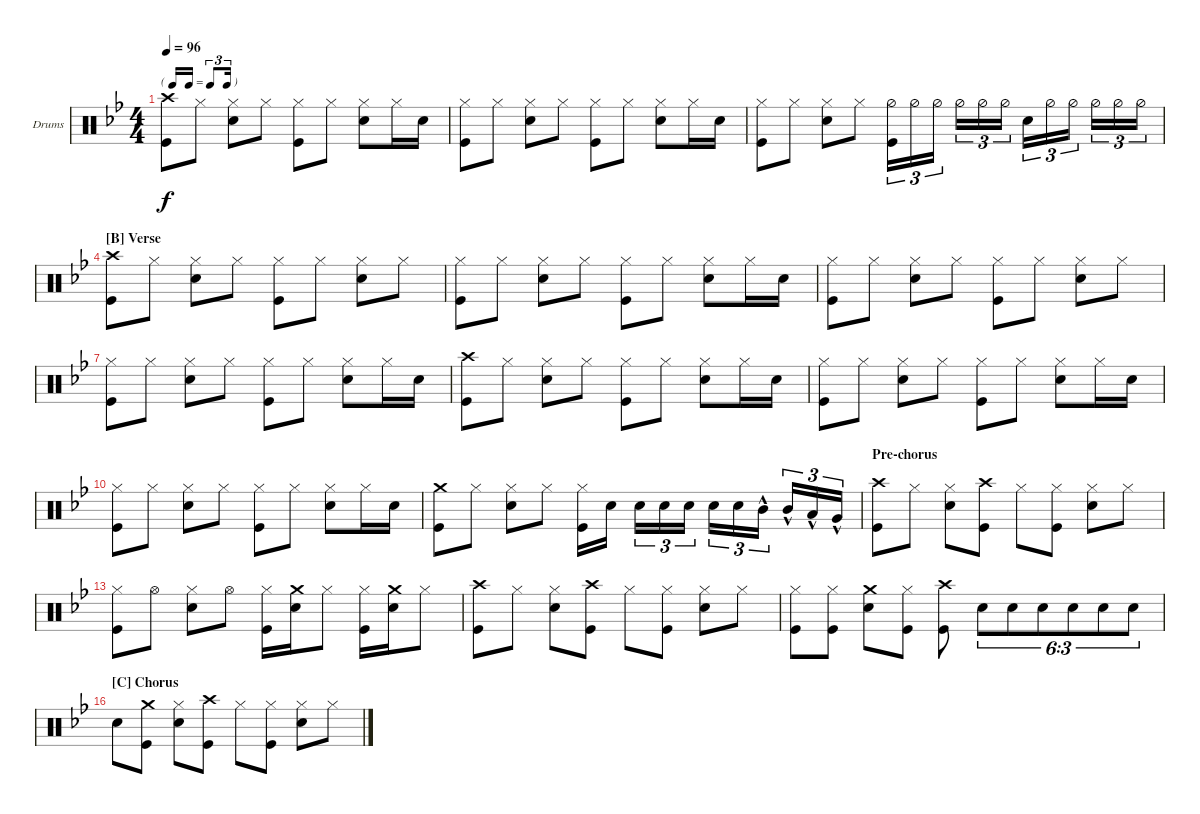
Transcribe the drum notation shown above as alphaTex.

\bracketExtendMode nobrackets
\firstSystemTrackNameOrientation horizontal
\otherSystemsTrackNameOrientation horizontal
\defaultBarNumberDisplay FirstOfSystem
\track ("Randy Castillo" "Drums") {instrument percussion}
\staff {score}
\articulation defaults
\ts (4 4)
\tf triplet16th
\tempo 96
\clef neutral
\scale
0.531165
\ks bb
("Kick (hit)" "Crash high (hit)").8{dy f} "Hi-Hat (closed)".8 ("Hi-Hat (closed)" "Snare (hit) 2").8 "Hi-Hat (closed)".8 ("Hi-Hat (closed)" "Kick (hit)").8 "Hi-Hat (closed)".8 ("Hi-Hat (closed)" "Snare (hit) 2").8 "Hi-Hat (closed)".16 "Snare (hit) 2".16 |
\scale
0.497634 ("Kick (hit)" "Hi-Hat (closed)").8 "Hi-Hat (closed)".8 ("Hi-Hat (closed)" "Snare (hit) 2").8 "Hi-Hat (closed)".8 ("Hi-Hat (closed)" "Kick (hit)").8 "Hi-Hat (closed)".8 ("Hi-Hat (closed)" "Snare (hit) 2").8 "Hi-Hat (closed)".16 "Snare (hit) 2".16 |
\scale
0.503226 ("Kick (hit)" "Hi-Hat (closed)").8 "Hi-Hat (closed)".8 ("Hi-Hat (closed)" "Snare (hit) 2").8 "Hi-Hat (closed)".8 ("Hi-Hat (half)" "Kick (hit)").16{tu (3 2)} "Hi-Hat (half)".16{tu (3 2)} "Hi-Hat (half)".16{tu (3 2)} "Hi-Hat (half)".16{tu (3 2)} "Hi-Hat (half)".16{tu (3 2)} "Hi-Hat (half)".16{tu (3 2)} "Snare (hit) 2".16{tu (3 2)} "Hi-Hat (half)".16{tu (3 2)} "Hi-Hat (half)".16{tu (3 2)} "Hi-Hat (half)".16{tu (3 2)} "Hi-Hat (half)".16{tu (3 2)} "Hi-Hat (half)".16{tu (3 2)} |
\section ("B" "Verse")
\scale
0.496415 ("Kick (hit)" "Crash high (hit)").8 "Hi-Hat (closed)".8 ("Hi-Hat (closed)" "Snare (hit) 2").8 "Hi-Hat (closed)".8 ("Hi-Hat (closed)" "Kick (hit)").8 "Hi-Hat (closed)".8 ("Hi-Hat (closed)" "Snare (hit) 2").8 "Hi-Hat (closed)".8 |
\scale
0.501425 ("Kick (hit)" "Hi-Hat (closed)").8 "Hi-Hat (closed)".8 ("Hi-Hat (closed)" "Snare (hit) 2").8 "Hi-Hat (closed)".8 ("Hi-Hat (closed)" "Kick (hit)").8 "Hi-Hat (closed)".8 ("Hi-Hat (closed)" "Snare (hit) 2").8 "Hi-Hat (closed)".16 "Snare (hit) 2".16 |
\scale
0.498438 ("Kick (hit)" "Hi-Hat (closed)").8 "Hi-Hat (closed)".8 ("Hi-Hat (closed)" "Snare (hit) 2").8 "Hi-Hat (closed)".8 ("Hi-Hat (closed)" "Kick (hit)").8 "Hi-Hat (closed)".8 ("Hi-Hat (closed)" "Snare (hit) 2").8 "Hi-Hat (closed)".8 |
("Kick (hit)" "Hi-Hat (closed)").8 "Hi-Hat (closed)".8 ("Hi-Hat (closed)" "Snare (hit) 2").8 "Hi-Hat (closed)".8 ("Hi-Hat (closed)" "Kick (hit)").8 "Hi-Hat (closed)".8 ("Hi-Hat (closed)" "Snare (hit) 2").8 "Hi-Hat (closed)".16 "Snare (hit) 2".16 |
\scale
0.488687 ("Kick (hit)" "Crash high (hit)").8 "Hi-Hat (closed)".8 ("Hi-Hat (closed)" "Snare (hit) 2").8 "Hi-Hat (closed)".8 ("Hi-Hat (closed)" "Kick (hit)").8 "Hi-Hat (closed)".8 ("Hi-Hat (closed)" "Snare (hit) 2").8 "Hi-Hat (closed)".16 "Snare (hit) 2".16 |
\scale
0.511419 ("Kick (hit)" "Hi-Hat (closed)").8 "Hi-Hat (closed)".8 ("Hi-Hat (closed)" "Snare (hit) 2").8 "Hi-Hat (closed)".8 ("Hi-Hat (closed)" "Kick (hit)").8 "Hi-Hat (closed)".8 ("Hi-Hat (closed)" "Snare (hit) 2").8 "Hi-Hat (closed)".16 "Snare (hit) 2".16 |
\scale
0.497312 ("Kick (hit)" "Hi-Hat (closed)").8 "Hi-Hat (closed)".8 ("Hi-Hat (closed)" "Snare (hit) 2").8 "Hi-Hat (closed)".8 ("Hi-Hat (closed)" "Kick (hit)").8 "Hi-Hat (closed)".8 ("Hi-Hat (closed)" "Snare (hit) 2").8 "Hi-Hat (closed)".16 "Snare (hit) 2".16 |
\scale
0.502713 ("Kick (hit)" "Crash medium (hit)").8 "Hi-Hat (closed)".8 ("Hi-Hat (closed)" "Snare (hit) 2").8 "Hi-Hat (closed)".8 ("Hi-Hat (closed)" "Kick (hit)").16 "Snare (hit) 2".16 "Snare (hit) 2".16{tu (3 2)} "Snare (hit) 2".16{tu (3 2)} "Snare (hit) 2".16{tu (3 2)} "Snare (hit) 2".16{tu (3 2)} "Snare (hit) 2".16{tu (3 2)} "Mid Tom (hit)"{hac}.16{tu (3 2)} "Mid Tom (hit)"{hac}.16{tu (3 2)} "Low Tom (hit)"{hac}.16{tu (3 2)} "Very Low Tom (hit)"{hac}.16{tu (3 2)} |
\section ("" "Pre-chorus")
("Kick (hit)" "Crash high (hit)").8 "Hi-Hat (closed)".8 ("Hi-Hat (closed)" "Snare (hit) 2").8 ("Kick (hit)" "Crash high (hit)").8 "Hi-Hat (closed)".8 ("Hi-Hat (closed)" "Kick (hit)").8 ("Hi-Hat (closed)" "Snare (hit) 2").8 "Hi-Hat (closed)".8 |
("Kick (hit)" "Hi-Hat (closed)").8 "Hi-Hat (open)".8 ("Hi-Hat (closed)" "Snare (hit) 2").8 "Hi-Hat (open)".8 ("Hi-Hat (closed)" "Kick (hit)").16 ("Snare (hit) 2" "Crash medium (hit)").16 "Hi-Hat (closed)".8 ("Hi-Hat (closed)" "Kick (hit)").16 ("Snare (hit) 2" "Crash medium (hit)").16 "Hi-Hat (closed)".8 |
\scale
0.502157 ("Kick (hit)" "Crash high (hit)").8 "Hi-Hat (closed)".8 ("Hi-Hat (closed)" "Snare (hit) 2").8 ("Kick (hit)" "Crash high (hit)").8 "Hi-Hat (closed)".8 ("Hi-Hat (closed)" "Kick (hit)").8 ("Hi-Hat (closed)" "Snare (hit) 2").8 "Hi-Hat (closed)".8 |
\scale
0.496465 ("Kick (hit)" "Hi-Hat (closed)").8 ("Hi-Hat (closed)" "Kick (hit)").8 ("Snare (hit) 2" "Crash medium (hit)").8 ("Hi-Hat (closed)" "Kick (hit)").8 ("Kick (hit)" "Crash high (hit)").8 "Snare (hit) 2".8{tu (6 3)} "Snare (hit) 2".8{tu (6 3)} "Snare (hit) 2".8{tu (6 3)} "Snare (hit) 2".8{tu (6 3)} "Snare (hit) 2".8{tu (6 3)} "Snare (hit) 2".8{tu (6 3)} |
\section ("C" "Chorus")
\scale
0.502157 "Snare (hit) 2".8 ("Kick (hit)" "Crash medium (hit)").8 ("Snare (hit) 2" "Hi-Hat (closed)").8 ("Kick (hit)" "Crash high (hit)").8 "Hi-Hat (closed)".8 ("Kick (hit)" "Hi-Hat (closed)").8 ("Snare (hit) 2" "Hi-Hat (closed)").8 "Hi-Hat (closed)".8
